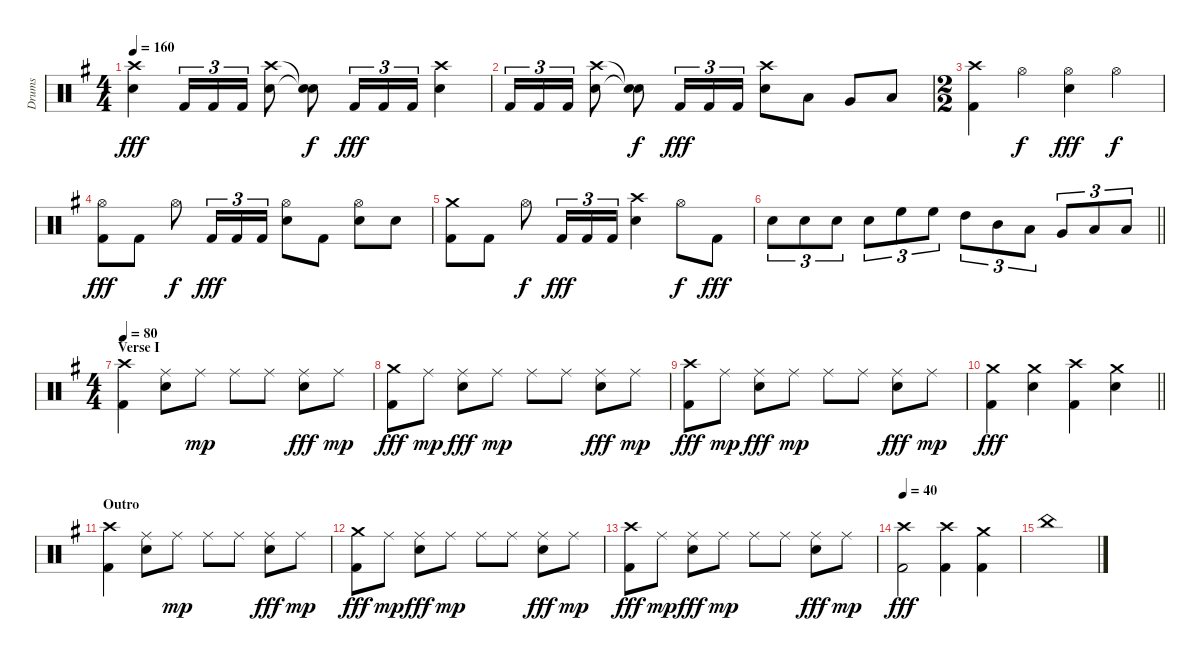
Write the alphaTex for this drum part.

\track ("Drums" "Drums") {instrument percussion}
\staff {score}
\articulation defaults
\ts (4 4)
\tempo 160
\clef neutral
\ks g
("Crash high (hit)" "Snare (hit) 2").4{dy fff} "Kick (hit) 2".16{tu (3 2)} "Kick (hit) 2".16{tu (3 2)} "Kick (hit) 2".16{tu (3 2)} ("Crash high (hit)" "Snare (hit) 2").8 ("Snare (hit)"{t} "Snare (hit)"{t}).8{dy f} "Kick (hit) 2".16{tu (3 2) dy fff} "Kick (hit) 2".16{tu (3 2)} "Kick (hit) 2".16{tu (3 2)} ("Crash high (hit)" "Snare (hit) 2").4 |
"Kick (hit) 2".16{tu (3 2)} "Kick (hit) 2".16{tu (3 2)} "Kick (hit) 2".16{tu (3 2)} ("Crash high (hit)" "Snare (hit) 2").8 ("Snare (hit)"{t} "Snare (hit)"{t}).8{dy f} "Kick (hit) 2".16{tu (3 2) dy fff} "Kick (hit) 2".16{tu (3 2)} "Kick (hit) 2".16{tu (3 2)} ("Crash high (hit)" "Snare (hit) 2").8 "Low Tom (hit)".8 "Very Low Tom (hit)".8 "Low Floor Tom (hit)".8 |
\ts (2 2)
("Crash high (hit)" "Kick (hit) 2").4 "Hi-Hat (open)".4{dy f} ("Hi-Hat (open)" "Snare (hit) 2").4{dy fff} "Hi-Hat (open)".4{dy f} |
("Hi-Hat (open)" "Kick (hit) 2").8{dy fff} "Kick (hit) 2".8{beam split} "Hi-Hat (open)".8{dy f} "Kick (hit) 2".16{tu (3 2) dy fff} "Kick (hit) 2".16{tu (3 2)} "Kick (hit) 2".16{tu (3 2)} ("Hi-Hat (open)" "Snare (hit) 2").8 "Kick (hit) 2".8{beam split} ("Hi-Hat (open)" "Snare (hit) 2").8 "Snare (hit) 2".8 |
("Crash medium (hit)" "Kick (hit) 2").8 "Kick (hit) 2".8{beam split} "Hi-Hat (open)".8{dy f} "Kick (hit) 2".16{tu (3 2) dy fff} "Kick (hit) 2".16{tu (3 2)} "Kick (hit) 2".16{tu (3 2)} ("Crash high (hit)" "Snare (hit) 2").4 "Hi-Hat (open)".8{dy f} "Kick (hit) 2".8{dy fff} |
\barLineRight lightlight "Snare (hit) 2".8{tu (3 2)} "Snare (hit) 2".8{tu (3 2)} "Snare (hit) 2".8{tu (3 2) beam split} "Snare (hit) 2".8{tu (3 2)} "High Floor Tom (hit)".8{tu (3 2)} "High Floor Tom (hit)".8{tu (3 2)} "High Tom (hit)".8{tu (3 2)} "Mid Tom (hit)".8{tu (3 2)} "Low Tom (hit)".8{tu (3 2) beam split} "Very Low Tom (hit)".8{tu (3 2)} "Low Floor Tom (hit)".8{tu (3 2)} "Low Floor Tom (hit)".8{tu (3 2)}
|
\ts (4 4)
\section ("" "Verse I")
\tempo 80
("Crash high (hit)" "Kick (hit) 2").4 ("Ride (middle)" "Snare (hit) 2").8 "Ride (middle)".8{dy mp} "Ride (middle)".8 "Ride (middle)".8 ("Ride (middle)" "Snare (hit) 2").8{dy fff} "Ride (middle)".8{dy mp} |
("Crash medium (hit)" "Kick (hit) 2").8{dy fff} "Ride (middle)".8{dy mp} ("Ride (middle)" "Snare (hit) 2").8{dy fff} "Ride (middle)".8{dy mp} "Ride (middle)".8 "Ride (middle)".8 ("Ride (middle)" "Snare (hit) 2").8{dy fff} "Ride (middle)".8{dy mp} |
("Crash high (hit)" "Kick (hit) 2").8{dy fff} "Ride (middle)".8{dy mp} ("Ride (middle)" "Snare (hit) 2").8{dy fff} "Ride (middle)".8{dy mp} "Ride (middle)".8 "Ride (middle)".8 ("Ride (middle)" "Snare (hit) 2").8{dy fff} "Ride (middle)".8{dy mp} |
\barLineRight lightlight
("Crash medium (hit)" "Kick (hit) 2").4{dy fff} ("Crash medium (hit)" "Snare (hit) 2").4 ("Crash high (hit)" "Kick (hit) 2").4 ("Crash medium (hit)" "Snare (hit) 2").4 |
\section ("" "Outro")
("Crash high (hit)" "Kick (hit) 2").4 ("Ride (middle)" "Snare (hit) 2").8 "Ride (middle)".8{dy mp} "Ride (middle)".8 "Ride (middle)".8 ("Ride (middle)" "Snare (hit) 2").8{dy fff} "Ride (middle)".8{dy mp} |
("Crash medium (hit)" "Kick (hit) 2").8{dy fff} "Ride (middle)".8{dy mp} ("Ride (middle)" "Snare (hit) 2").8{dy fff} "Ride (middle)".8{dy mp} "Ride (middle)".8 "Ride (middle)".8 ("Ride (middle)" "Snare (hit) 2").8{dy fff} "Ride (middle)".8{dy mp} |
("Crash high (hit)" "Kick (hit) 2").8{dy fff} "Ride (middle)".8{dy mp} ("Ride (middle)" "Snare (hit) 2").8{dy fff} "Ride (middle)".8{dy mp} "Ride (middle)".8 "Ride (middle)".8 ("Ride (middle)" "Snare (hit) 2").8{dy fff} "Ride (middle)".8{dy mp} |
\tempo 40
("Crash high (hit)" "Kick (hit) 2").2{dy fff} ("Crash high (hit)" "Kick (hit) 2").4 ("Crash medium (hit)" "Kick (hit) 2").4 |
"China (hit)".1
